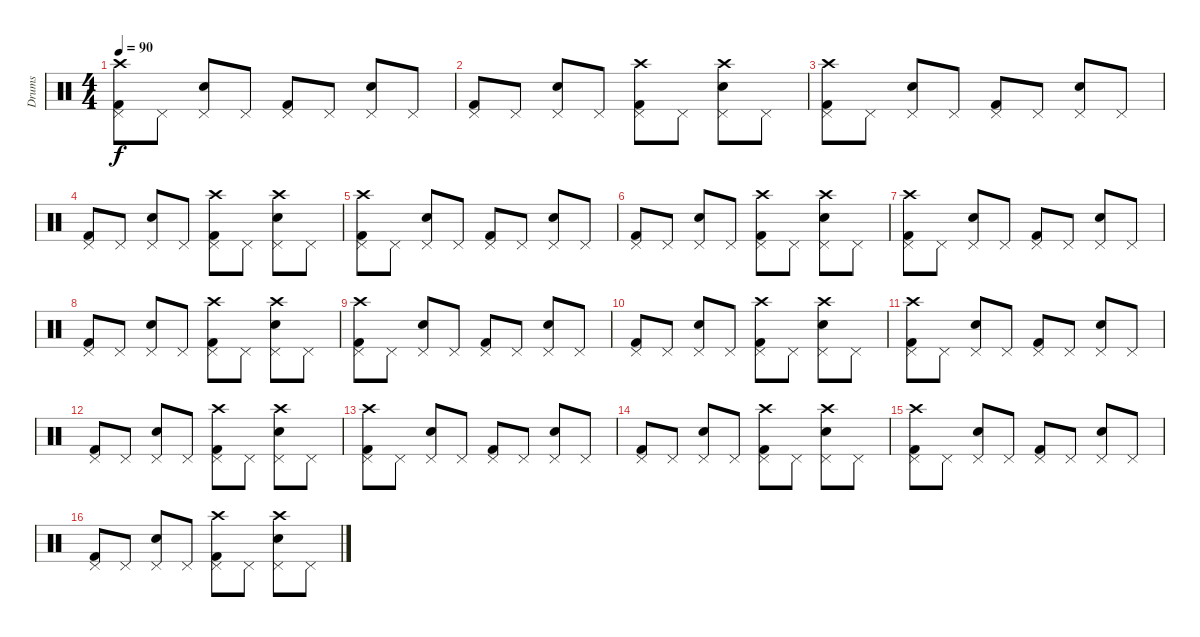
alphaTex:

\track ("Drums" "Drums") {instrument percussion}
\staff {score}
\articulation defaults
\ts (4 4)
\tempo 90
\clef neutral
\ks c
("Crash high (hit)" "Kick (hit) 2" "Pedal Hi-Hat (hit)").8{dy f} "Pedal Hi-Hat (hit)".8 ("Pedal Hi-Hat (hit)" "Snare (hit) 2").8 "Pedal Hi-Hat (hit)".8 ("Pedal Hi-Hat (hit)" "Kick (hit) 2").8 "Pedal Hi-Hat (hit)".8 ("Pedal Hi-Hat (hit)" "Snare (hit) 2").8 "Pedal Hi-Hat (hit)".8 |
("Pedal Hi-Hat (hit)" "Kick (hit) 2").8 "Pedal Hi-Hat (hit)".8 ("Pedal Hi-Hat (hit)" "Snare (hit) 2").8 "Pedal Hi-Hat (hit)".8 ("Pedal Hi-Hat (hit)" "Kick (hit) 2" "Crash high (hit)").8 "Pedal Hi-Hat (hit)".8 ("Pedal Hi-Hat (hit)" "Snare (hit) 2" "Crash high (hit)").8 "Pedal Hi-Hat (hit)".8 |
("Crash high (hit)" "Kick (hit) 2" "Pedal Hi-Hat (hit)").8 "Pedal Hi-Hat (hit)".8 ("Pedal Hi-Hat (hit)" "Snare (hit) 2").8 "Pedal Hi-Hat (hit)".8 ("Pedal Hi-Hat (hit)" "Kick (hit) 2").8 "Pedal Hi-Hat (hit)".8 ("Pedal Hi-Hat (hit)" "Snare (hit) 2").8 "Pedal Hi-Hat (hit)".8 |
("Pedal Hi-Hat (hit)" "Kick (hit) 2").8 "Pedal Hi-Hat (hit)".8 ("Pedal Hi-Hat (hit)" "Snare (hit) 2").8 "Pedal Hi-Hat (hit)".8 ("Pedal Hi-Hat (hit)" "Kick (hit) 2" "Crash high (hit)").8 "Pedal Hi-Hat (hit)".8 ("Pedal Hi-Hat (hit)" "Snare (hit) 2" "Crash high (hit)").8 "Pedal Hi-Hat (hit)".8 |
("Crash high (hit)" "Kick (hit) 2" "Pedal Hi-Hat (hit)").8 "Pedal Hi-Hat (hit)".8 ("Pedal Hi-Hat (hit)" "Snare (hit) 2").8 "Pedal Hi-Hat (hit)".8 ("Pedal Hi-Hat (hit)" "Kick (hit) 2").8 "Pedal Hi-Hat (hit)".8 ("Pedal Hi-Hat (hit)" "Snare (hit) 2").8 "Pedal Hi-Hat (hit)".8 |
("Pedal Hi-Hat (hit)" "Kick (hit) 2").8 "Pedal Hi-Hat (hit)".8 ("Pedal Hi-Hat (hit)" "Snare (hit) 2").8 "Pedal Hi-Hat (hit)".8 ("Pedal Hi-Hat (hit)" "Kick (hit) 2" "Crash high (hit)").8 "Pedal Hi-Hat (hit)".8 ("Pedal Hi-Hat (hit)" "Snare (hit) 2" "Crash high (hit)").8 "Pedal Hi-Hat (hit)".8 |
("Crash high (hit)" "Kick (hit) 2" "Pedal Hi-Hat (hit)").8 "Pedal Hi-Hat (hit)".8 ("Pedal Hi-Hat (hit)" "Snare (hit) 2").8 "Pedal Hi-Hat (hit)".8 ("Pedal Hi-Hat (hit)" "Kick (hit) 2").8 "Pedal Hi-Hat (hit)".8 ("Pedal Hi-Hat (hit)" "Snare (hit) 2").8 "Pedal Hi-Hat (hit)".8 |
("Pedal Hi-Hat (hit)" "Kick (hit) 2").8 "Pedal Hi-Hat (hit)".8 ("Pedal Hi-Hat (hit)" "Snare (hit) 2").8 "Pedal Hi-Hat (hit)".8 ("Pedal Hi-Hat (hit)" "Kick (hit) 2" "Crash high (hit)").8 "Pedal Hi-Hat (hit)".8 ("Pedal Hi-Hat (hit)" "Snare (hit) 2" "Crash high (hit)").8 "Pedal Hi-Hat (hit)".8 |
("Crash high (hit)" "Kick (hit) 2" "Pedal Hi-Hat (hit)").8 "Pedal Hi-Hat (hit)".8 ("Pedal Hi-Hat (hit)" "Snare (hit) 2").8 "Pedal Hi-Hat (hit)".8 ("Pedal Hi-Hat (hit)" "Kick (hit) 2").8 "Pedal Hi-Hat (hit)".8 ("Pedal Hi-Hat (hit)" "Snare (hit) 2").8 "Pedal Hi-Hat (hit)".8 |
("Pedal Hi-Hat (hit)" "Kick (hit) 2").8 "Pedal Hi-Hat (hit)".8 ("Pedal Hi-Hat (hit)" "Snare (hit) 2").8 "Pedal Hi-Hat (hit)".8 ("Pedal Hi-Hat (hit)" "Kick (hit) 2" "Crash high (hit)").8 "Pedal Hi-Hat (hit)".8 ("Pedal Hi-Hat (hit)" "Snare (hit) 2" "Crash high (hit)").8 "Pedal Hi-Hat (hit)".8 |
("Crash high (hit)" "Kick (hit) 2" "Pedal Hi-Hat (hit)").8 "Pedal Hi-Hat (hit)".8 ("Pedal Hi-Hat (hit)" "Snare (hit) 2").8 "Pedal Hi-Hat (hit)".8 ("Pedal Hi-Hat (hit)" "Kick (hit) 2").8 "Pedal Hi-Hat (hit)".8 ("Pedal Hi-Hat (hit)" "Snare (hit) 2").8 "Pedal Hi-Hat (hit)".8 |
("Pedal Hi-Hat (hit)" "Kick (hit) 2").8 "Pedal Hi-Hat (hit)".8 ("Pedal Hi-Hat (hit)" "Snare (hit) 2").8 "Pedal Hi-Hat (hit)".8 ("Pedal Hi-Hat (hit)" "Kick (hit) 2" "Crash high (hit)").8 "Pedal Hi-Hat (hit)".8 ("Pedal Hi-Hat (hit)" "Snare (hit) 2" "Crash high (hit)").8 "Pedal Hi-Hat (hit)".8 |
("Crash high (hit)" "Kick (hit) 2" "Pedal Hi-Hat (hit)").8 "Pedal Hi-Hat (hit)".8 ("Pedal Hi-Hat (hit)" "Snare (hit) 2").8 "Pedal Hi-Hat (hit)".8 ("Pedal Hi-Hat (hit)" "Kick (hit) 2").8 "Pedal Hi-Hat (hit)".8 ("Pedal Hi-Hat (hit)" "Snare (hit) 2").8 "Pedal Hi-Hat (hit)".8 |
("Pedal Hi-Hat (hit)" "Kick (hit) 2").8 "Pedal Hi-Hat (hit)".8 ("Pedal Hi-Hat (hit)" "Snare (hit) 2").8 "Pedal Hi-Hat (hit)".8 ("Pedal Hi-Hat (hit)" "Kick (hit) 2" "Crash high (hit)").8 "Pedal Hi-Hat (hit)".8 ("Pedal Hi-Hat (hit)" "Snare (hit) 2" "Crash high (hit)").8 "Pedal Hi-Hat (hit)".8 |
("Crash high (hit)" "Kick (hit) 2" "Pedal Hi-Hat (hit)").8 "Pedal Hi-Hat (hit)".8 ("Pedal Hi-Hat (hit)" "Snare (hit) 2").8 "Pedal Hi-Hat (hit)".8 ("Pedal Hi-Hat (hit)" "Kick (hit) 2").8 "Pedal Hi-Hat (hit)".8 ("Pedal Hi-Hat (hit)" "Snare (hit) 2").8 "Pedal Hi-Hat (hit)".8 |
("Pedal Hi-Hat (hit)" "Kick (hit) 2").8 "Pedal Hi-Hat (hit)".8 ("Pedal Hi-Hat (hit)" "Snare (hit) 2").8 "Pedal Hi-Hat (hit)".8 ("Pedal Hi-Hat (hit)" "Kick (hit) 2" "Crash high (hit)").8 "Pedal Hi-Hat (hit)".8 ("Pedal Hi-Hat (hit)" "Snare (hit) 2" "Crash high (hit)").8 "Pedal Hi-Hat (hit)".8
